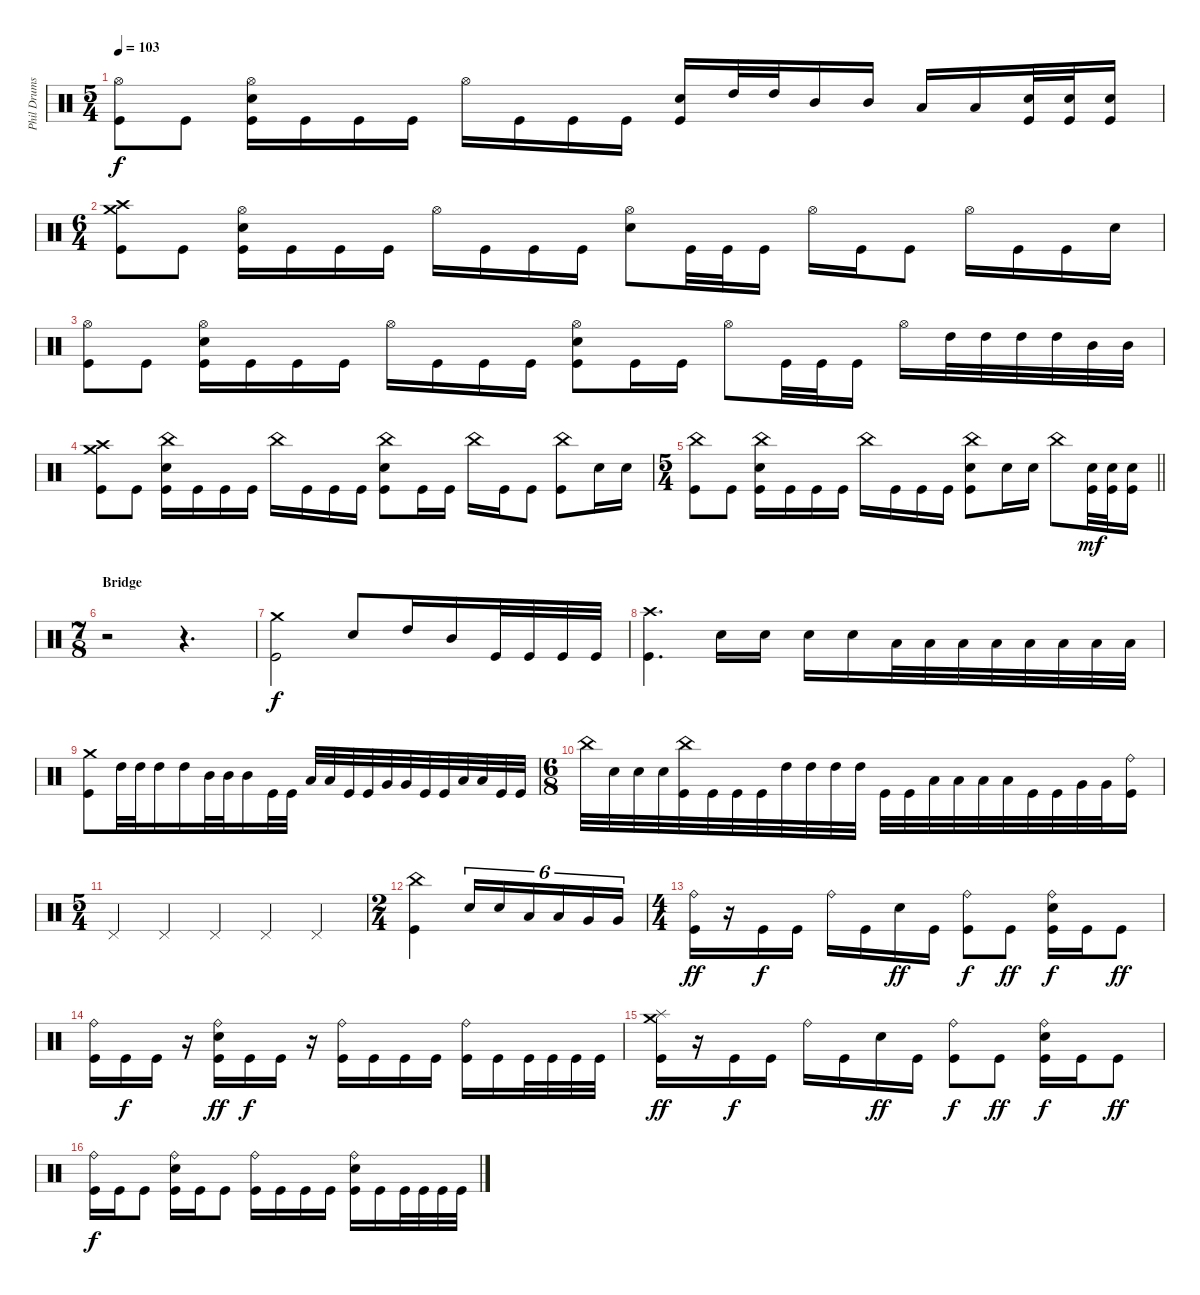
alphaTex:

\track ("Phil Drums" "Phil Drums") {instrument percussion}
\staff {score}
\articulation defaults
\ts (5 4)
\tempo 103
\clef neutral
\ks c
("Hi-Hat (open)" "Kick (hit)").8{dy f} "Kick (hit)".8 ("Hi-Hat (open)" "Snare (hit) 2" "Kick (hit)").16 "Kick (hit)".16 "Kick (hit)".16 "Kick (hit)".16 "Hi-Hat (open)".16 "Kick (hit)".16 "Kick (hit)".16 "Kick (hit)".16 ("Snare (hit) 2" "Kick (hit)").16 "High Tom (hit)".32 "High Tom (hit)".32 "Mid Tom (hit)".16 "Mid Tom (hit)".16 "Low Tom (hit)".16 "Low Tom (hit)".16 ("Snare (hit) 2" "Kick (hit)").32 ("Snare (hit) 2" "Kick (hit)").32 ("Snare (hit) 2" "Kick (hit)").16 |
\ts (6 4)
("Crash medium (hit)" "Crash high (hit)" "Kick (hit)").8 "Kick (hit)".8 ("Hi-Hat (open)" "Snare (hit) 2" "Kick (hit)").16 "Kick (hit)".16 "Kick (hit)".16 "Kick (hit)".16 "Hi-Hat (open)".16 "Kick (hit)".16 "Kick (hit)".16 "Kick (hit)".16 ("Hi-Hat (open)" "Snare (hit) 2").8 "Kick (hit)".32 "Kick (hit)".32 "Kick (hit)".16 "Hi-Hat (open)".16 "Kick (hit)".16 "Kick (hit)".8 "Hi-Hat (open)".16 "Kick (hit)".16 "Kick (hit)".16 "Snare (hit) 2".16 |
("Hi-Hat (open)" "Kick (hit)").8 "Kick (hit)".8 ("Hi-Hat (open)" "Snare (hit) 2" "Kick (hit)").16 "Kick (hit)".16 "Kick (hit)".16 "Kick (hit)".16 "Hi-Hat (open)".16 "Kick (hit)".16 "Kick (hit)".16 "Kick (hit)".16 ("Hi-Hat (open)" "Snare (hit) 2" "Kick (hit)").8 "Kick (hit)".16 "Kick (hit)".16 "Hi-Hat (open)".8 "Kick (hit)".32 "Kick (hit)".32 "Kick (hit)".16 "Hi-Hat (open)".16 "High Tom (hit)".32 "High Tom (hit)".32 "High Tom (hit)".32 "High Tom (hit)".32 "Mid Tom (hit)".32 "Mid Tom (hit)".32 |
("Crash medium (hit)" "Crash high (hit)" "Kick (hit)").8 "Kick (hit)".8 ("China (hit)" "Snare (hit) 2" "Kick (hit)").16 "Kick (hit)".16 "Kick (hit)".16 "Kick (hit)".16 "China (hit)".16 "Kick (hit)".16 "Kick (hit)".16 "Kick (hit)".16 ("China (hit)" "Snare (hit) 2" "Kick (hit)").8 "Kick (hit)".16 "Kick (hit)".16 "China (hit)".16 "Kick (hit)".16 "Kick (hit)".8 ("China (hit)" "Kick (hit)").8 "Snare (hit) 2".16 "Snare (hit) 2".16 |
\ts (5 4)
\barLineRight lightlight
("China (hit)" "Kick (hit)").8 "Kick (hit)".8 ("China (hit)" "Snare (hit) 2" "Kick (hit)").16 "Kick (hit)".16 "Kick (hit)".16 "Kick (hit)".16 "China (hit)".16 "Kick (hit)".16 "Kick (hit)".16 "Kick (hit)".16 ("China (hit)" "Snare (hit) 2" "Kick (hit)").8 "Snare (hit) 2".16 "Snare (hit) 2".16 "China (hit)".8 ("Snare (hit) 2" "Kick (hit)").32{dy mf} ("Snare (hit) 2" "Kick (hit)").32 ("Snare (hit) 2" "Kick (hit)").16 |
\ts (7 8)
\section ("" "Bridge")
r.2 r.4{d} |
("Crash medium (hit)" "Kick (hit)").2{dy f} "Snare (hit) 2".8 "High Tom (hit)".16 "Mid Tom (hit)".16 "Kick (hit)".32 "Kick (hit)".32 "Kick (hit)".32 "Kick (hit)".32 |
("Crash high (hit)" "Kick (hit)").4{d} "Snare (hit) 2".16 "Snare (hit) 2".16 "Snare (hit) 2".16 "Snare (hit) 2".16 "Low Tom (hit)".32 "Low Tom (hit)".32 "Low Tom (hit)".32 "Low Tom (hit)".32 "Low Floor Tom (hit)".32 "Low Floor Tom (hit)".32 "Low Floor Tom (hit)".32 "Low Floor Tom (hit)".32 |
("Crash medium (hit)" "Kick (hit)").8 "High Tom (hit)".32 "High Tom (hit)".32 "High Tom (hit)".16 "High Tom (hit)".16 "Mid Tom (hit)".32 "Mid Tom (hit)".32 "Mid Tom (hit)".16 "Kick (hit)".32 "Kick (hit)".32 "Low Tom (hit)".32 "Low Tom (hit)".32 "Kick (hit)".32 "Kick (hit)".32 "Very Low Tom (hit)".32 "Very Low Tom (hit)".32 "Kick (hit)".32 "Kick (hit)".32 "Low Floor Tom (hit)".32 "Low Floor Tom (hit)".32 "Kick (hit)".32 "Kick (hit)".32 |
\ts (6 8)
"China (hit)".32 "Snare (hit) 2".32 "Snare (hit) 2".32 "Snare (hit) 2".32 ("China (hit)" "Kick (hit)").32 "Kick (hit)".32 "Kick (hit)".32 "Kick (hit)".32 "High Tom (hit)".32 "High Tom (hit)".32 "High Tom (hit)".32 "High Tom (hit)".32 "Kick (hit)".32 "Kick (hit)".32 "Low Tom (hit)".32 "Low Tom (hit)".32 "Low Tom (hit)".32 "Low Tom (hit)".32 "Kick (hit)".32 "Kick (hit)".32 "Very Low Tom (hit)".32 "Very Low Tom (hit)".32 ("Ride (bell)" "Kick (hit)").16 |
\ts (5 4)
"Pedal Hi-Hat (hit)".4 "Pedal Hi-Hat (hit)".4 "Pedal Hi-Hat (hit)".4 "Pedal Hi-Hat (hit)".4 "Pedal Hi-Hat (hit)".4 |
\ts (2 4)
("China (hit)" "Kick (hit)").4 "Snare (hit) 2".16{tu (6 4)} "Snare (hit) 2".16{tu (6 4)} "Low Tom (hit)".16{tu (6 4)} "Low Tom (hit)".16{tu (6 4)} "Very Low Tom (hit)".16{tu (6 4)} "Very Low Tom (hit)".16{tu (6 4)} |
\ts (4 4)
("Ride (bell)" "Kick (hit)").16{dy ff} r.16 "Kick (hit)".16{dy f} "Kick (hit)".16 "Ride (bell)".16 "Kick (hit)".16 "Snare (hit) 2".16{dy ff} "Kick (hit)".16 ("Kick (hit)" "Ride (bell)").8{dy f} "Kick (hit)".8{dy ff} ("Snare (hit) 2" "Ride (bell)" "Kick (hit)").16{dy f} "Kick (hit)".16 "Kick (hit)".8{dy ff} |
("Kick (hit)" "Ride (bell)").16 "Kick (hit)".16{dy f} "Kick (hit)".16 r.16 ("Kick (hit)" "Ride (bell)" "Snare (hit) 2").16{dy ff} "Kick (hit)".16{dy f} "Kick (hit)".16 r.16 ("Kick (hit)" "Ride (bell)").16 "Kick (hit)".16 "Kick (hit)".16 "Kick (hit)".16 ("Kick (hit)" "Ride (bell)").16 "Kick (hit)".16 "Kick (hit)".32 "Kick (hit)".32 "Kick (hit)".32 "Kick (hit)".32 |
("Kick (hit)" "Splash (hit)" "Crash medium (hit)").16{dy ff} r.16 "Kick (hit)".16{dy f} "Kick (hit)".16 "Ride (bell)".16 "Kick (hit)".16 "Snare (hit) 2".16{dy ff} "Kick (hit)".16 ("Kick (hit)" "Ride (bell)").8{dy f} "Kick (hit)".8{dy ff} ("Snare (hit) 2" "Ride (bell)" "Kick (hit)").16{dy f} "Kick (hit)".16 "Kick (hit)".8{dy ff} |
("Ride (bell)" "Kick (hit)").16{dy f} "Kick (hit)".16 "Kick (hit)".8 ("Ride (bell)" "Snare (hit) 2" "Kick (hit)").16 "Kick (hit)".16 "Kick (hit)".8 ("Ride (bell)" "Kick (hit)").16 "Kick (hit)".16 "Kick (hit)".16 "Kick (hit)".16 ("Ride (bell)" "Snare (hit) 2" "Kick (hit)").16 "Kick (hit)".16 "Kick (hit)".32 "Kick (hit)".32 "Kick (hit)".32 "Kick (hit)".32
